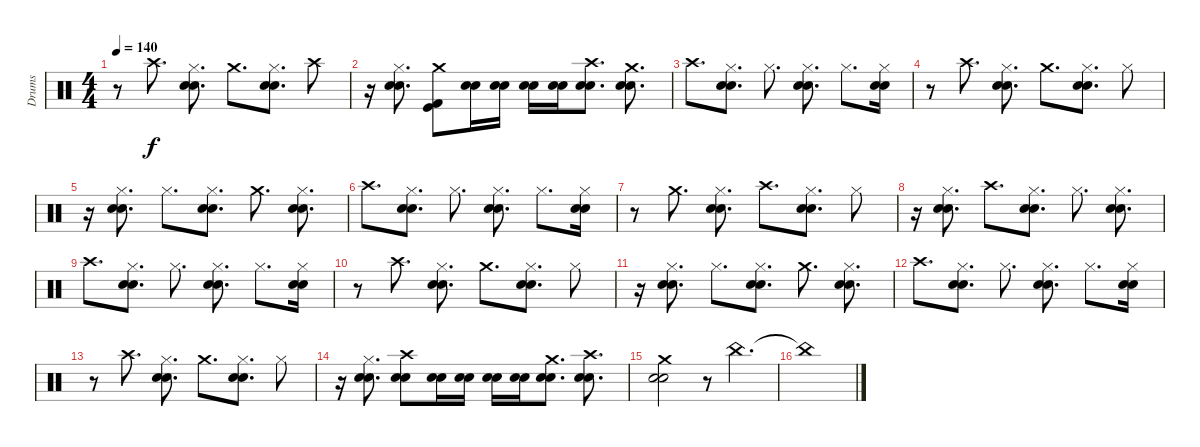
\track ("Drums" "Drums") {instrument percussion}
\staff {score}
\articulation defaults
\ts (4 4)
\tempo 140
\clef neutral
\ks c
r.8{dy f} "Crash high (hit)".8{d} ("Hi-Hat (closed)" "Electric Snare (hit)" "Snare (hit) 2").8{d} "Crash medium (hit)".8{d} ("Hi-Hat (closed)" "Electric Snare (hit)" "Snare (hit) 2").8{d} "Crash high (hit)".8 |
r.16 ("Hi-Hat (closed)" "Electric Snare (hit)" "Snare (hit) 2").8{d} ("Crash medium (hit)" "Kick (hit) 2" "Kick (hit)").8 ("Electric Snare (hit)" "Snare (hit) 2").16 ("Electric Snare (hit)" "Snare (hit) 2").16 ("Electric Snare (hit)" "Snare (hit) 2").16 ("Electric Snare (hit)" "Snare (hit) 2").16 ("Electric Snare (hit)" "Snare (hit) 2" "Crash high (hit)").8{d} ("Electric Snare (hit)" "Snare (hit) 2" "Crash medium (hit)").8{d} |
"Crash high (hit)".8{d} ("Hi-Hat (closed)" "Electric Snare (hit)" "Snare (hit) 2").8{d} "Hi-Hat (closed)".8{d} ("Hi-Hat (closed)" "Electric Snare (hit)" "Snare (hit) 2").8{d} "Hi-Hat (closed)".8{d} ("Hi-Hat (closed)" "Electric Snare (hit)" "Snare (hit) 2").16 |
r.8 "Crash high (hit)".8{d} ("Hi-Hat (closed)" "Electric Snare (hit)" "Snare (hit) 2").8{d} "Crash medium (hit)".8{d} ("Hi-Hat (closed)" "Electric Snare (hit)" "Snare (hit) 2").8{d} "Hi-Hat (closed)".8 |
r.16 ("Hi-Hat (closed)" "Electric Snare (hit)" "Snare (hit) 2").8{d} "Hi-Hat (closed)".8{d} ("Hi-Hat (closed)" "Electric Snare (hit)" "Snare (hit) 2").8{d} "Crash medium (hit)".8{d} ("Hi-Hat (closed)" "Electric Snare (hit)" "Snare (hit) 2").8{d} |
"Crash high (hit)".8{d} ("Hi-Hat (closed)" "Electric Snare (hit)" "Snare (hit) 2").8{d} "Hi-Hat (closed)".8{d} ("Hi-Hat (closed)" "Electric Snare (hit)" "Snare (hit) 2").8{d} "Hi-Hat (closed)".8{d} ("Hi-Hat (closed)" "Electric Snare (hit)" "Snare (hit) 2").16 |
r.8 "Crash medium (hit)".8{d} ("Hi-Hat (closed)" "Electric Snare (hit)" "Snare (hit) 2").8{d} "Crash high (hit)".8{d} ("Hi-Hat (closed)" "Electric Snare (hit)" "Snare (hit) 2").8{d} "Hi-Hat (closed)".8 |
r.16 ("Hi-Hat (closed)" "Electric Snare (hit)" "Snare (hit) 2").8{d} "Crash high (hit)".8{d} ("Hi-Hat (closed)" "Electric Snare (hit)" "Snare (hit) 2").8{d} "Hi-Hat (closed)".8{d} ("Hi-Hat (closed)" "Electric Snare (hit)" "Snare (hit) 2").8{d} |
"Crash high (hit)".8{d} ("Hi-Hat (closed)" "Electric Snare (hit)" "Snare (hit) 2").8{d} "Hi-Hat (closed)".8{d} ("Hi-Hat (closed)" "Electric Snare (hit)" "Snare (hit) 2").8{d} "Hi-Hat (closed)".8{d} ("Hi-Hat (closed)" "Electric Snare (hit)" "Snare (hit) 2").16 |
r.8 "Crash high (hit)".8{d} ("Hi-Hat (closed)" "Electric Snare (hit)" "Snare (hit) 2").8{d} "Crash medium (hit)".8{d} ("Hi-Hat (closed)" "Electric Snare (hit)" "Snare (hit) 2").8{d} "Hi-Hat (closed)".8 |
r.16 ("Hi-Hat (closed)" "Electric Snare (hit)" "Snare (hit) 2").8{d} "Hi-Hat (closed)".8{d} ("Hi-Hat (closed)" "Electric Snare (hit)" "Snare (hit) 2").8{d} "Crash medium (hit)".8{d} ("Hi-Hat (closed)" "Electric Snare (hit)" "Snare (hit) 2").8{d} |
"Crash high (hit)".8{d} ("Hi-Hat (closed)" "Electric Snare (hit)" "Snare (hit) 2").8{d} "Hi-Hat (closed)".8{d} ("Hi-Hat (closed)" "Electric Snare (hit)" "Snare (hit) 2").8{d} "Hi-Hat (closed)".8{d} ("Hi-Hat (closed)" "Electric Snare (hit)" "Snare (hit) 2").16 |
r.8 "Crash high (hit)".8{d} ("Hi-Hat (closed)" "Electric Snare (hit)" "Snare (hit) 2").8{d} "Crash medium (hit)".8{d} ("Hi-Hat (closed)" "Electric Snare (hit)" "Snare (hit) 2").8{d} "Hi-Hat (closed)".8 |
r.16 ("Hi-Hat (closed)" "Electric Snare (hit)" "Snare (hit) 2").8{d} ("Crash high (hit)" "Electric Snare (hit)" "Snare (hit) 2").8 ("Electric Snare (hit)" "Snare (hit) 2").16 ("Electric Snare (hit)" "Snare (hit) 2").16 ("Electric Snare (hit)" "Snare (hit) 2").16 ("Electric Snare (hit)" "Snare (hit) 2").16 ("Electric Snare (hit)" "Snare (hit) 2" "Crash medium (hit)").8{d} ("Electric Snare (hit)" "Snare (hit) 2" "Crash high (hit)").8{d} |
("Crash medium (hit)" "Electric Snare (hit)" "Snare (hit) 2").2 r.8{volume 0} "China (hit)".4{d volume 16} |
"China (hit)"{t}.1
